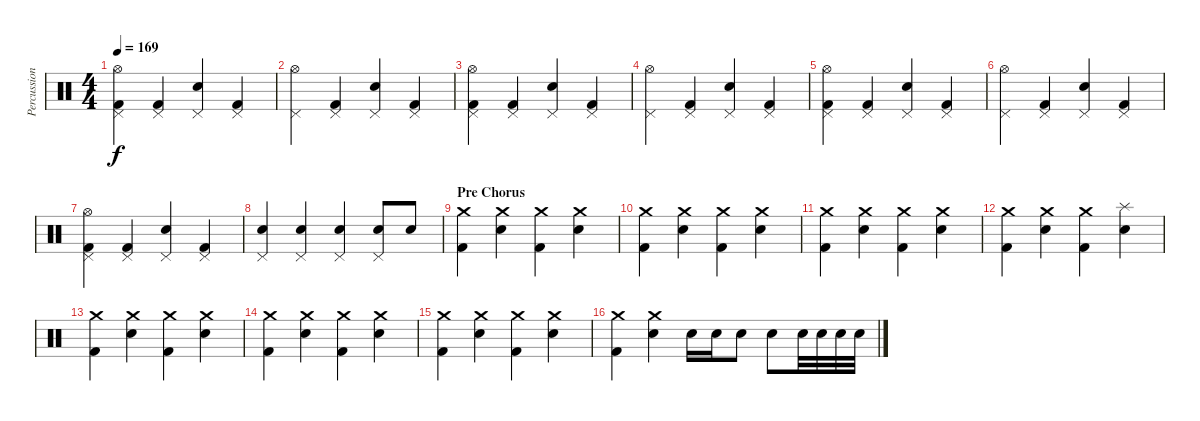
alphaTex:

\track ("Percussion" "Percussion") {instrument percussion}
\staff {score}
\articulation defaults
\ts (4 4)
\tempo 169
\clef neutral
\ks c
("Kick (hit) 2" "Pedal Hi-Hat (hit)" "Hi-Hat (open)").4{dy f} ("Kick (hit) 2" "Pedal Hi-Hat (hit)").4 ("Snare (hit) 2" "Pedal Hi-Hat (hit)").4 ("Kick (hit) 2" "Pedal Hi-Hat (hit)").4 |
("Hi-Hat (open)" "Pedal Hi-Hat (hit)").4 ("Kick (hit) 2" "Pedal Hi-Hat (hit)").4 ("Snare (hit) 2" "Pedal Hi-Hat (hit)").4 ("Kick (hit) 2" "Pedal Hi-Hat (hit)").4 |
("Kick (hit) 2" "Pedal Hi-Hat (hit)" "Hi-Hat (open)").4 ("Kick (hit) 2" "Pedal Hi-Hat (hit)").4 ("Snare (hit) 2" "Pedal Hi-Hat (hit)").4 ("Kick (hit) 2" "Pedal Hi-Hat (hit)").4 |
("Hi-Hat (open)" "Pedal Hi-Hat (hit)").4 ("Kick (hit) 2" "Pedal Hi-Hat (hit)").4 ("Snare (hit) 2" "Pedal Hi-Hat (hit)").4 ("Kick (hit) 2" "Pedal Hi-Hat (hit)").4 |
("Kick (hit) 2" "Pedal Hi-Hat (hit)" "Hi-Hat (open)").4 ("Kick (hit) 2" "Pedal Hi-Hat (hit)").4 ("Snare (hit) 2" "Pedal Hi-Hat (hit)").4 ("Kick (hit) 2" "Pedal Hi-Hat (hit)").4 |
("Hi-Hat (open)" "Pedal Hi-Hat (hit)").4 ("Kick (hit) 2" "Pedal Hi-Hat (hit)").4 ("Snare (hit) 2" "Pedal Hi-Hat (hit)").4 ("Kick (hit) 2" "Pedal Hi-Hat (hit)").4 |
("Kick (hit) 2" "Pedal Hi-Hat (hit)" "Hi-Hat (open)").4 ("Kick (hit) 2" "Pedal Hi-Hat (hit)").4 ("Snare (hit) 2" "Pedal Hi-Hat (hit)").4 ("Kick (hit) 2" "Pedal Hi-Hat (hit)").4 |
("Snare (hit) 2" "Pedal Hi-Hat (hit)").4 ("Snare (hit) 2" "Pedal Hi-Hat (hit)").4 ("Snare (hit) 2" "Pedal Hi-Hat (hit)").4 ("Snare (hit) 2" "Pedal Hi-Hat (hit)").8 "Snare (hit) 2".8 |
\section ("" "Pre Chorus")
("Crash medium (hit)" "Kick (hit) 2").4 ("Snare (hit) 2" "Crash medium (hit)").4 ("Crash medium (hit)" "Kick (hit) 2").4 ("Snare (hit) 2" "Crash medium (hit)").4 |
("Crash medium (hit)" "Kick (hit) 2").4 ("Snare (hit) 2" "Crash medium (hit)").4 ("Crash medium (hit)" "Kick (hit) 2").4 ("Snare (hit) 2" "Crash medium (hit)").4 |
("Crash medium (hit)" "Kick (hit) 2").4 ("Snare (hit) 2" "Crash medium (hit)").4 ("Crash medium (hit)" "Kick (hit) 2").4 ("Snare (hit) 2" "Crash medium (hit)").4 |
("Crash medium (hit)" "Kick (hit) 2").4 ("Snare (hit) 2" "Crash medium (hit)").4 ("Crash medium (hit)" "Kick (hit) 2").4 ("Snare (hit) 2" "Splash (hit)").4 |
("Crash medium (hit)" "Kick (hit) 2").4 ("Snare (hit) 2" "Crash medium (hit)").4 ("Crash medium (hit)" "Kick (hit) 2").4 ("Snare (hit) 2" "Crash medium (hit)").4 |
("Crash medium (hit)" "Kick (hit) 2").4 ("Snare (hit) 2" "Crash medium (hit)").4 ("Crash medium (hit)" "Kick (hit) 2").4 ("Snare (hit) 2" "Crash medium (hit)").4 |
("Crash medium (hit)" "Kick (hit) 2").4 ("Snare (hit) 2" "Crash medium (hit)").4 ("Crash medium (hit)" "Kick (hit) 2").4 ("Snare (hit) 2" "Crash medium (hit)").4 |
("Crash medium (hit)" "Kick (hit) 2").4 ("Snare (hit) 2" "Crash medium (hit)").4 "Snare (hit) 2".16 "Snare (hit) 2".16 "Snare (hit) 2".8 "Snare (hit) 2".8 "Snare (hit) 2".32 "Snare (hit) 2".32 "Snare (hit) 2".32 "Snare (hit) 2".32
